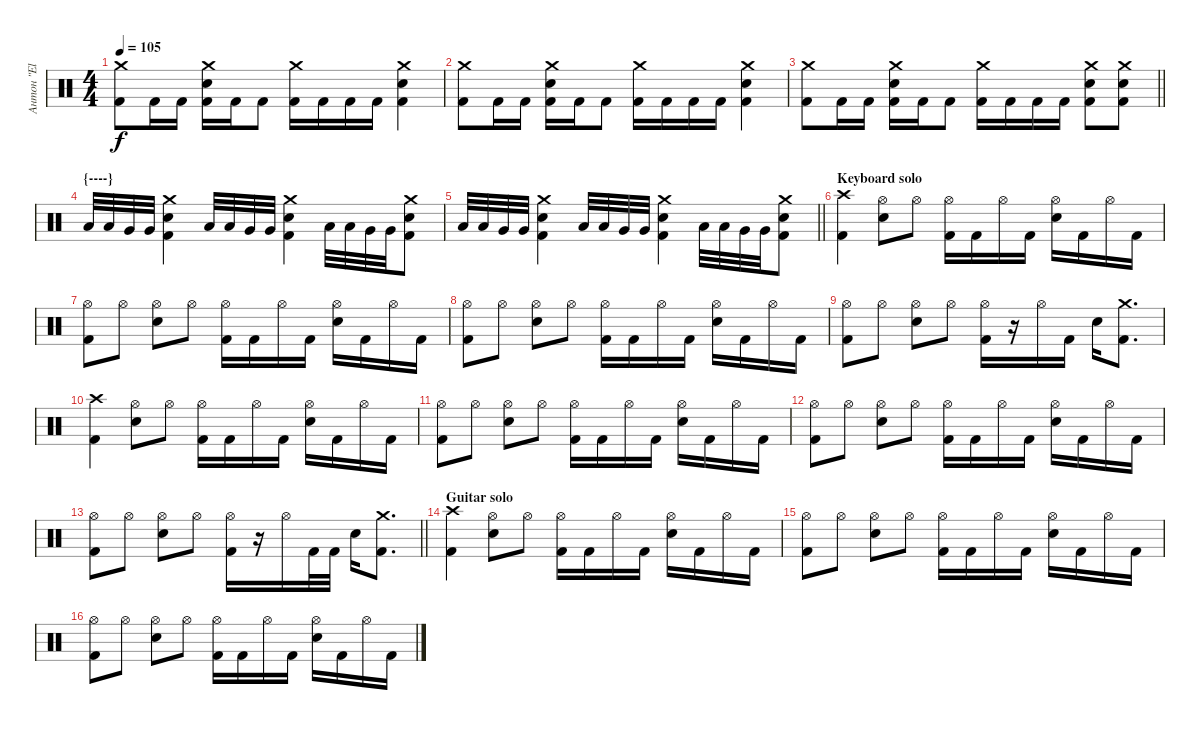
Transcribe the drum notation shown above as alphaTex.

\track ("Антон \"El Bastardo\" Смольянин" "Антон \"El ") {instrument percussion}
\staff {score}
\articulation defaults
\ts (4 4)
\tempo 105
\clef neutral
\ks c
("Crash medium (hit)" "Kick (hit) 2").8{dy f} "Kick (hit) 2".16 "Kick (hit) 2".16 ("Crash medium (hit)" "Electric Snare (hit)" "Kick (hit) 2").16 "Kick (hit) 2".16 "Kick (hit) 2".8 ("Crash medium (hit)" "Kick (hit) 2").16 "Kick (hit) 2".16 "Kick (hit) 2".16 "Kick (hit) 2".16 ("Crash medium (hit)" "Electric Snare (hit)" "Kick (hit) 2").4 |
("Crash medium (hit)" "Kick (hit) 2").8 "Kick (hit) 2".16 "Kick (hit) 2".16 ("Crash medium (hit)" "Electric Snare (hit)" "Kick (hit) 2").16 "Kick (hit) 2".16 "Kick (hit) 2".8 ("Crash medium (hit)" "Kick (hit) 2").16 "Kick (hit) 2".16 "Kick (hit) 2".16 "Kick (hit) 2".16 ("Crash medium (hit)" "Electric Snare (hit)" "Kick (hit) 2").4 |
\barLineRight lightlight
("Crash medium (hit)" "Kick (hit) 2").8 "Kick (hit) 2".16 "Kick (hit) 2".16 ("Crash medium (hit)" "Electric Snare (hit)" "Kick (hit) 2").16 "Kick (hit) 2".16 "Kick (hit) 2".8 ("Crash medium (hit)" "Kick (hit) 2").16 "Kick (hit) 2".16 "Kick (hit) 2".16 "Kick (hit) 2".16 ("Crash medium (hit)" "Electric Snare (hit)" "Kick (hit) 2").8 ("Crash medium (hit)" "Electric Snare (hit)" "Kick (hit) 2").8 |
\section ("" "{----}")
"Low Tom (hit)".32 "Low Tom (hit)".32 "Very Low Tom (hit)".32 "Very Low Tom (hit)".32 ("Crash medium (hit)" "Electric Snare (hit)" "Kick (hit) 2").4 "Low Tom (hit)".32 "Low Tom (hit)".32 "Very Low Tom (hit)".32 "Very Low Tom (hit)".32 ("Crash medium (hit)" "Electric Snare (hit)" "Kick (hit) 2").4 "Low Tom (hit)".32 "Low Tom (hit)".32 "Very Low Tom (hit)".32 "Very Low Tom (hit)".32 ("Crash medium (hit)" "Electric Snare (hit)" "Kick (hit) 2").8 |
\barLineRight lightlight "Low Tom (hit)".32 "Low Tom (hit)".32 "Very Low Tom (hit)".32 "Very Low Tom (hit)".32
("Crash medium (hit)" "Electric Snare (hit)" "Kick (hit) 2").4 "Low Tom (hit)".32 "Low Tom (hit)".32 "Very Low Tom (hit)".32 "Very Low Tom (hit)".32 ("Crash medium (hit)" "Electric Snare (hit)" "Kick (hit) 2").4 "Low Tom (hit)".32 "Low Tom (hit)".32 "Very Low Tom (hit)".32 "Very Low Tom (hit)".32 ("Crash medium (hit)" "Electric Snare (hit)" "Kick (hit) 2").8 |
\section ("" "Keyboard solo")
("Crash high (hit)" "Kick (hit) 2").4 ("Hi-Hat (open)" "Electric Snare (hit)").8 "Hi-Hat (open)".8 ("Hi-Hat (open)" "Kick (hit) 2").16 "Kick (hit) 2".16 "Hi-Hat (open)".16 "Kick (hit) 2".16 ("Hi-Hat (open)" "Electric Snare (hit)").16 "Kick (hit) 2".16 "Hi-Hat (open)".16 "Kick (hit) 2".16 |
("Hi-Hat (open)" "Kick (hit) 2").8 "Hi-Hat (open)".8 ("Hi-Hat (open)" "Electric Snare (hit)").8 "Hi-Hat (open)".8 ("Hi-Hat (open)" "Kick (hit) 2").16 "Kick (hit) 2".16 "Hi-Hat (open)".16 "Kick (hit) 2".16 ("Hi-Hat (open)" "Electric Snare (hit)").16 "Kick (hit) 2".16 "Hi-Hat (open)".16 "Kick (hit) 2".16 |
("Hi-Hat (open)" "Kick (hit) 2").8 "Hi-Hat (open)".8 ("Hi-Hat (open)" "Electric Snare (hit)").8 "Hi-Hat (open)".8 ("Hi-Hat (open)" "Kick (hit) 2").16 "Kick (hit) 2".16 "Hi-Hat (open)".16 "Kick (hit) 2".16 ("Hi-Hat (open)" "Electric Snare (hit)").16 "Kick (hit) 2".16 "Hi-Hat (open)".16 "Kick (hit) 2".16 |
("Hi-Hat (open)" "Kick (hit) 2").8 "Hi-Hat (open)".8 ("Hi-Hat (open)" "Electric Snare (hit)").8 "Hi-Hat (open)".8 ("Hi-Hat (open)" "Kick (hit) 2").16 r.16 "Hi-Hat (open)".16 "Kick (hit) 2".16 "Electric Snare (hit)".16 ("Crash medium (hit)" "Kick (hit) 2").8{d} |
("Crash high (hit)" "Kick (hit) 2").4 ("Hi-Hat (open)" "Electric Snare (hit)").8 "Hi-Hat (open)".8 ("Hi-Hat (open)" "Kick (hit) 2").16 "Kick (hit) 2".16 "Hi-Hat (open)".16 "Kick (hit) 2".16 ("Hi-Hat (open)" "Electric Snare (hit)").16 "Kick (hit) 2".16 "Hi-Hat (open)".16 "Kick (hit) 2".16 |
("Hi-Hat (open)" "Kick (hit) 2").8 "Hi-Hat (open)".8 ("Hi-Hat (open)" "Electric Snare (hit)").8 "Hi-Hat (open)".8 ("Hi-Hat (open)" "Kick (hit) 2").16 "Kick (hit) 2".16 "Hi-Hat (open)".16 "Kick (hit) 2".16 ("Hi-Hat (open)" "Electric Snare (hit)").16 "Kick (hit) 2".16 "Hi-Hat (open)".16 "Kick (hit) 2".16 |
("Hi-Hat (open)" "Kick (hit) 2").8 "Hi-Hat (open)".8 ("Hi-Hat (open)" "Electric Snare (hit)").8 "Hi-Hat (open)".8 ("Hi-Hat (open)" "Kick (hit) 2").16 "Kick (hit) 2".16 "Hi-Hat (open)".16 "Kick (hit) 2".16 ("Hi-Hat (open)" "Electric Snare (hit)").16 "Kick (hit) 2".16 "Hi-Hat (open)".16 "Kick (hit) 2".16 |
\barLineRight lightlight
("Hi-Hat (open)" "Kick (hit) 2").8 "Hi-Hat (open)".8 ("Hi-Hat (open)" "Electric Snare (hit)").8 "Hi-Hat (open)".8 ("Hi-Hat (open)" "Kick (hit) 2").16 r.16 "Hi-Hat (open)".16 "Kick (hit) 2".32 "Kick (hit) 2".32 "Electric Snare (hit)".16 ("Crash medium (hit)" "Kick (hit) 2").8{d} |
\section ("" "Guitar solo")
("Crash high (hit)" "Kick (hit) 2").4 ("Hi-Hat (open)" "Electric Snare (hit)").8 "Hi-Hat (open)".8 ("Hi-Hat (open)" "Kick (hit) 2").16 "Kick (hit) 2".16 "Hi-Hat (open)".16 "Kick (hit) 2".16 ("Hi-Hat (open)" "Electric Snare (hit)").16 "Kick (hit) 2".16 "Hi-Hat (open)".16 "Kick (hit) 2".16 |
("Hi-Hat (open)" "Kick (hit) 2").8 "Hi-Hat (open)".8 ("Hi-Hat (open)" "Electric Snare (hit)").8 "Hi-Hat (open)".8 ("Hi-Hat (open)" "Kick (hit) 2").16 "Kick (hit) 2".16 "Hi-Hat (open)".16 "Kick (hit) 2".16 ("Hi-Hat (open)" "Electric Snare (hit)").16 "Kick (hit) 2".16 "Hi-Hat (open)".16 "Kick (hit) 2".16 |
("Hi-Hat (open)" "Kick (hit) 2").8 "Hi-Hat (open)".8 ("Hi-Hat (open)" "Electric Snare (hit)").8 "Hi-Hat (open)".8 ("Hi-Hat (open)" "Kick (hit) 2").16 "Kick (hit) 2".16 "Hi-Hat (open)".16 "Kick (hit) 2".16 ("Hi-Hat (open)" "Electric Snare (hit)").16 "Kick (hit) 2".16 "Hi-Hat (open)".16 "Kick (hit) 2".16
